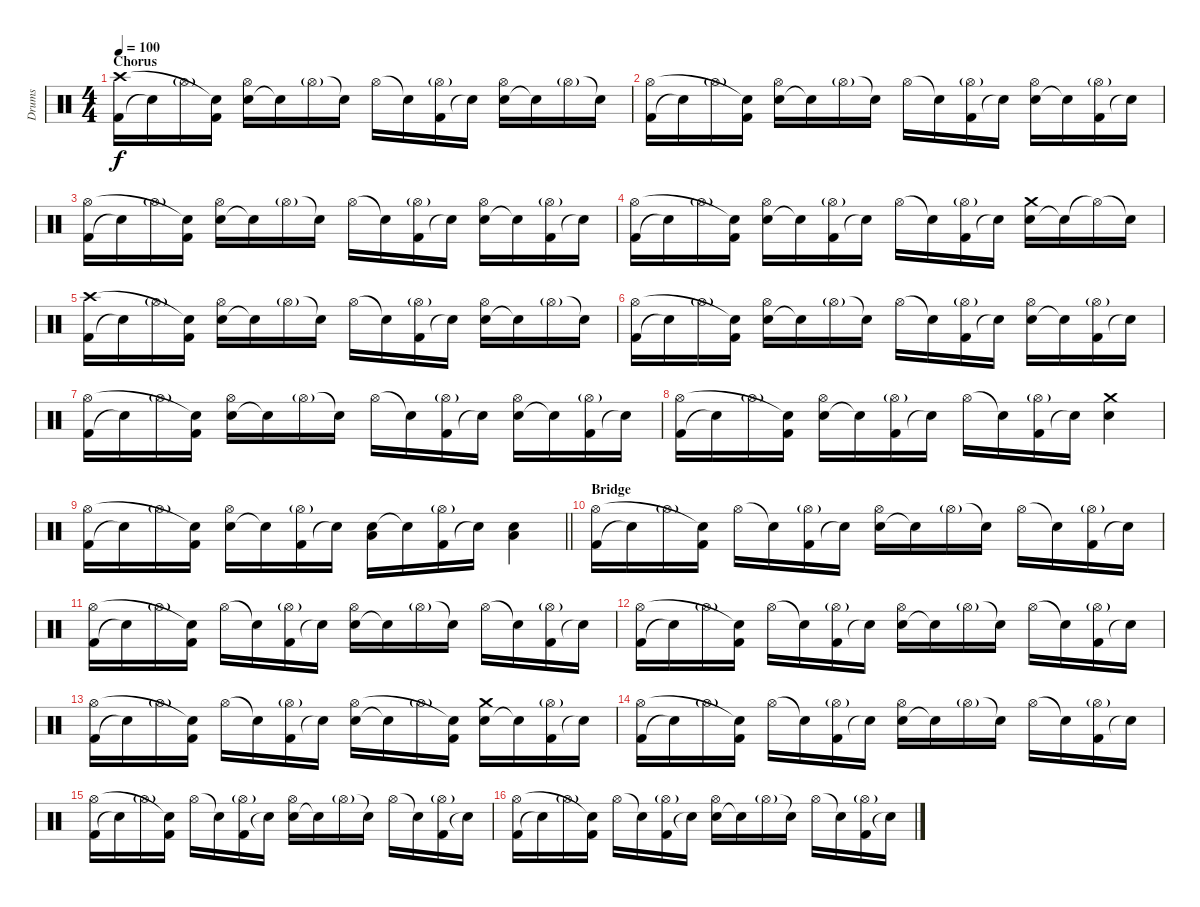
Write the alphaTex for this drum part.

\track ("Drums" "Drums") {instrument percussion}
\staff {score}
\articulation defaults
\ts (4 4)
\section ("" "Chorus")
\tempo 100
\clef neutral
\ks c
("Kick (hit) 2" "Crash high (hit)").16{dy f} "Snare (hit)"{t}.16 "Hi-Hat (open)"{g}.16 ("Kick (hit) 2" "Snare (hit)"{t}).16 ("Snare (hit) 2" "Hi-Hat (open)").16 "Snare (hit)"{t}.16 "Hi-Hat (open)"{g}.16 "Snare (hit)"{t}.16 "Hi-Hat (open)".16 "Snare (hit)"{t}.16 ("Kick (hit) 2" "Hi-Hat (open)"{g}).16 "Snare (hit)"{t}.16 ("Snare (hit) 2" "Hi-Hat (open)").16 "Snare (hit)"{t}.16 "Hi-Hat (open)"{g}.16 "Snare (hit)"{t}.16 |
("Kick (hit) 2" "Hi-Hat (open)").16 "Snare (hit)"{t}.16 "Hi-Hat (open)"{g}.16 ("Kick (hit) 2" "Snare (hit)"{t}).16 ("Snare (hit) 2" "Hi-Hat (open)").16 "Snare (hit)"{t}.16 "Hi-Hat (open)"{g}.16 "Snare (hit)"{t}.16 "Hi-Hat (open)".16 "Snare (hit)"{t}.16 ("Kick (hit) 2" "Hi-Hat (open)"{g}).16 "Snare (hit)"{t}.16 ("Snare (hit) 2" "Hi-Hat (open)").16 "Snare (hit)"{t}.16 ("Kick (hit) 2" "Hi-Hat (open)"{g}).16 "Snare (hit)"{t}.16 |
("Kick (hit) 2" "Hi-Hat (open)").16 "Snare (hit)"{t}.16 "Hi-Hat (open)"{g}.16 ("Kick (hit) 2" "Snare (hit)"{t}).16 ("Snare (hit) 2" "Hi-Hat (open)").16 "Snare (hit)"{t}.16 "Hi-Hat (open)"{g}.16 "Snare (hit)"{t}.16 "Hi-Hat (open)".16 "Snare (hit)"{t}.16 ("Kick (hit) 2" "Hi-Hat (open)"{g}).16 "Snare (hit)"{t}.16 ("Snare (hit) 2" "Hi-Hat (open)").16 "Snare (hit)"{t}.16 ("Kick (hit) 2" "Hi-Hat (open)"{g}).16 "Snare (hit)"{t}.16 |
("Kick (hit) 2" "Hi-Hat (open)").16 "Snare (hit)"{t}.16 "Hi-Hat (open)"{g}.16 ("Kick (hit) 2" "Snare (hit)"{t}).16 ("Snare (hit) 2" "Hi-Hat (open)").16 "Snare (hit)"{t}.16 ("Kick (hit) 2" "Hi-Hat (open)"{g}).16 "Snare (hit)"{t}.16 "Hi-Hat (open)".16 "Snare (hit)"{t}.16 ("Kick (hit) 2" "Hi-Hat (open)"{g}).16 "Snare (hit)"{t}.16 ("Snare (hit) 2" "Crash medium (hit)").16 "Snare (hit)"{t}.16 "Hi-Hat (open)"{t}.16 "Snare (hit)"{t}.16 |
("Kick (hit) 2" "Crash high (hit)").16 "Snare (hit)"{t}.16 "Hi-Hat (open)"{g}.16 ("Kick (hit) 2" "Snare (hit)"{t}).16 ("Snare (hit) 2" "Hi-Hat (open)").16 "Snare (hit)"{t}.16 "Hi-Hat (open)"{g}.16 "Snare (hit)"{t}.16 "Hi-Hat (open)".16 "Snare (hit)"{t}.16 ("Kick (hit) 2" "Hi-Hat (open)"{g}).16 "Snare (hit)"{t}.16 ("Snare (hit) 2" "Hi-Hat (open)").16 "Snare (hit)"{t}.16 "Hi-Hat (open)"{g}.16 "Snare (hit)"{t}.16 |
("Kick (hit) 2" "Hi-Hat (open)").16 "Snare (hit)"{t}.16 "Hi-Hat (open)"{g}.16 ("Kick (hit) 2" "Snare (hit)"{t}).16 ("Snare (hit) 2" "Hi-Hat (open)").16 "Snare (hit)"{t}.16 "Hi-Hat (open)"{g}.16 "Snare (hit)"{t}.16 "Hi-Hat (open)".16 "Snare (hit)"{t}.16 ("Kick (hit) 2" "Hi-Hat (open)"{g}).16 "Snare (hit)"{t}.16 ("Snare (hit) 2" "Hi-Hat (open)").16 "Snare (hit)"{t}.16 ("Kick (hit) 2" "Hi-Hat (open)"{g}).16 "Snare (hit)"{t}.16 |
("Kick (hit) 2" "Hi-Hat (open)").16 "Snare (hit)"{t}.16 "Hi-Hat (open)"{g}.16 ("Kick (hit) 2" "Snare (hit)"{t}).16 ("Snare (hit) 2" "Hi-Hat (open)").16 "Snare (hit)"{t}.16 "Hi-Hat (open)"{g}.16 "Snare (hit)"{t}.16 "Hi-Hat (open)".16 "Snare (hit)"{t}.16 ("Kick (hit) 2" "Hi-Hat (open)"{g}).16 "Snare (hit)"{t}.16 ("Snare (hit) 2" "Hi-Hat (open)").16 "Snare (hit)"{t}.16 ("Kick (hit) 2" "Hi-Hat (open)"{g}).16 "Snare (hit)"{t}.16 |
("Kick (hit) 2" "Hi-Hat (open)").16 "Snare (hit)"{t}.16 "Hi-Hat (open)"{g}.16 ("Kick (hit) 2" "Snare (hit)"{t}).16 ("Snare (hit) 2" "Hi-Hat (open)").16 "Snare (hit)"{t}.16 ("Kick (hit) 2" "Hi-Hat (open)"{g}).16 "Snare (hit)"{t}.16 "Hi-Hat (open)".16 "Snare (hit)"{t}.16 ("Kick (hit) 2" "Hi-Hat (open)"{g}).16 "Snare (hit)"{t}.16 ("Snare (hit) 2" "Crash medium (hit)").4 |
\barLineRight lightlight
("Kick (hit) 2" "Hi-Hat (open)").16 "Snare (hit)"{t}.16 "Hi-Hat (open)"{g}.16 ("Kick (hit) 2" "Snare (hit)"{t}).16 ("Snare (hit) 2" "Hi-Hat (open)").16 "Snare (hit)"{t}.16 ("Kick (hit) 2" "Hi-Hat (open)"{g}).16 "Snare (hit)"{t}.16 ("Snare (hit) 2" "Low Tom (hit)").16 "Snare (hit)"{t}.16 ("Kick (hit) 2" "Hi-Hat (open)"{g}).16 "Snare (hit)"{t}.16 ("Snare (hit) 2" "Low Tom (hit)").4 |
\section ("" "Bridge")
("Kick (hit) 2" "Hi-Hat (open)").16 "Snare (hit)"{t}.16 "Hi-Hat (open)"{g}.16 ("Kick (hit) 2" "Snare (hit)"{t}).16 "Hi-Hat (open)".16 "Snare (hit)"{t}.16 ("Kick (hit) 2" "Hi-Hat (open)"{g}).16 "Snare (hit)"{t}.16 ("Snare (hit) 2" "Hi-Hat (open)").16 "Snare (hit)"{t}.16 "Hi-Hat (open)"{g}.16 "Snare (hit)"{t}.16 "Hi-Hat (open)".16 "Snare (hit)"{t}.16 ("Kick (hit) 2" "Hi-Hat (open)"{g}).16 "Snare (hit)"{t}.16 |
("Kick (hit) 2" "Hi-Hat (open)").16 "Snare (hit)"{t}.16 "Hi-Hat (open)"{g}.16 ("Kick (hit) 2" "Snare (hit)"{t}).16 "Hi-Hat (open)".16 "Snare (hit)"{t}.16 ("Kick (hit) 2" "Hi-Hat (open)"{g}).16 "Snare (hit)"{t}.16 ("Snare (hit) 2" "Hi-Hat (open)").16 "Snare (hit)"{t}.16 "Hi-Hat (open)"{g}.16 "Snare (hit)"{t}.16 "Hi-Hat (open)".16 "Snare (hit)"{t}.16 ("Kick (hit) 2" "Hi-Hat (open)"{g}).16 "Snare (hit)"{t}.16 |
("Kick (hit) 2" "Hi-Hat (open)").16 "Snare (hit)"{t}.16 "Hi-Hat (open)"{g}.16 ("Kick (hit) 2" "Snare (hit)"{t}).16 "Hi-Hat (open)".16 "Snare (hit)"{t}.16 ("Kick (hit) 2" "Hi-Hat (open)"{g}).16 "Snare (hit)"{t}.16 ("Snare (hit) 2" "Hi-Hat (open)").16 "Snare (hit)"{t}.16 "Hi-Hat (open)"{g}.16 "Snare (hit)"{t}.16 "Hi-Hat (open)".16 "Snare (hit)"{t}.16 ("Kick (hit) 2" "Hi-Hat (open)"{g}).16 "Snare (hit)"{t}.16 |
("Kick (hit) 2" "Hi-Hat (open)").16 "Snare (hit)"{t}.16 "Hi-Hat (open)"{g}.16 ("Kick (hit) 2" "Snare (hit)"{t}).16 "Hi-Hat (open)".16 "Snare (hit)"{t}.16 ("Kick (hit) 2" "Hi-Hat (open)"{g}).16 "Snare (hit)"{t}.16 ("Snare (hit) 2" "Hi-Hat (open)").16 "Snare (hit)"{t}.16 "Hi-Hat (open)"{g}.16 ("Kick (hit) 2" "Snare (hit)"{t}).16 ("Snare (hit) 2" "Crash medium (hit)").16 "Snare (hit)"{t}.16 ("Kick (hit) 2" "Hi-Hat (open)"{g}).16 "Snare (hit)"{t}.16 |
("Kick (hit) 2" "Hi-Hat (open)").16 "Snare (hit)"{t}.16 "Hi-Hat (open)"{g}.16 ("Kick (hit) 2" "Snare (hit)"{t}).16 "Hi-Hat (open)".16 "Snare (hit)"{t}.16 ("Kick (hit) 2" "Hi-Hat (open)"{g}).16 "Snare (hit)"{t}.16 ("Snare (hit) 2" "Hi-Hat (open)").16 "Snare (hit)"{t}.16 "Hi-Hat (open)"{g}.16 "Snare (hit)"{t}.16 "Hi-Hat (open)".16 "Snare (hit)"{t}.16 ("Kick (hit) 2" "Hi-Hat (open)"{g}).16 "Snare (hit)"{t}.16 |
("Kick (hit) 2" "Hi-Hat (open)").16 "Snare (hit)"{t}.16 "Hi-Hat (open)"{g}.16 ("Kick (hit) 2" "Snare (hit)"{t}).16 "Hi-Hat (open)".16 "Snare (hit)"{t}.16 ("Kick (hit) 2" "Hi-Hat (open)"{g}).16 "Snare (hit)"{t}.16 ("Snare (hit) 2" "Hi-Hat (open)").16 "Snare (hit)"{t}.16 "Hi-Hat (open)"{g}.16 "Snare (hit)"{t}.16 "Hi-Hat (open)".16 "Snare (hit)"{t}.16 ("Kick (hit) 2" "Hi-Hat (open)"{g}).16 "Snare (hit)"{t}.16 |
("Kick (hit) 2" "Hi-Hat (open)").16 "Snare (hit)"{t}.16 "Hi-Hat (open)"{g}.16 ("Kick (hit) 2" "Snare (hit)"{t}).16 "Hi-Hat (open)".16 "Snare (hit)"{t}.16 ("Kick (hit) 2" "Hi-Hat (open)"{g}).16 "Snare (hit)"{t}.16 ("Snare (hit) 2" "Hi-Hat (open)").16 "Snare (hit)"{t}.16 "Hi-Hat (open)"{g}.16 "Snare (hit)"{t}.16 "Hi-Hat (open)".16 "Snare (hit)"{t}.16 ("Kick (hit) 2" "Hi-Hat (open)"{g}).16 "Snare (hit)"{t}.16
